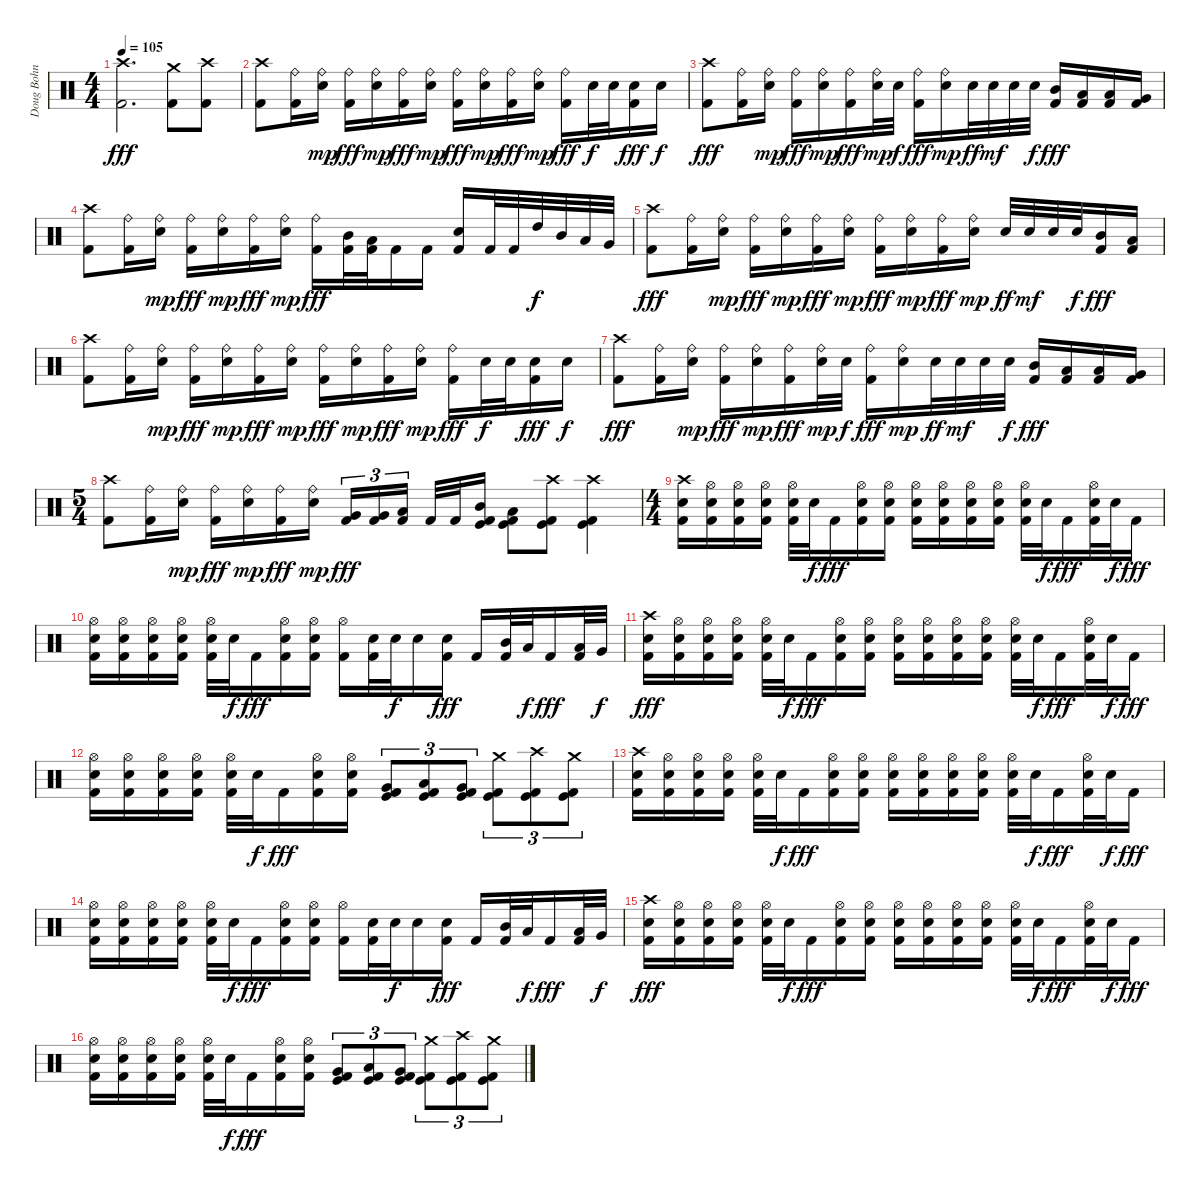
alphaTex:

\track ("Doug Bohn" "Doug Bohn") {instrument percussion}
\staff {score}
\articulation defaults
\ts (4 4)
\tempo 105
\clef neutral
\ks c
("Crash high (hit)" "Kick (hit) 2").2{d dy fff} ("Crash medium (hit)" "Kick (hit) 2").8 ("Crash high (hit)" "Kick (hit) 2").8 |
("Crash high (hit)" "Kick (hit) 2").8 ("Ride (bell)" "Kick (hit) 2").16 ("Ride (bell)" "Snare (hit) 2").16{dy mp} ("Ride (bell)" "Kick (hit) 2").16{dy fff} ("Ride (bell)" "Snare (hit) 2").16{dy mp} ("Ride (bell)" "Kick (hit) 2").16{dy fff} ("Ride (bell)" "Snare (hit) 2").16{dy mp} ("Ride (bell)" "Kick (hit) 2").16{dy fff} ("Ride (bell)" "Snare (hit) 2").16{dy mp} ("Ride (bell)" "Kick (hit) 2").16{dy fff} ("Ride (bell)" "Snare (hit) 2").16{dy mp} ("Ride (bell)" "Kick (hit) 2").16{dy fff} "Snare (hit) 2".32{dy f} "Snare (hit) 2".32 ("Snare (hit) 2" "Kick (hit) 2").16{dy fff} "Snare (hit) 2".16{dy f} |
("Crash high (hit)" "Kick (hit) 2").8{dy fff} ("Ride (bell)" "Kick (hit) 2").16 ("Ride (bell)" "Snare (hit) 2").16{dy mp} ("Ride (bell)" "Kick (hit) 2").16{dy fff} ("Ride (bell)" "Snare (hit) 2").16{dy mp} ("Ride (bell)" "Kick (hit) 2").16{dy fff} ("Ride (bell)" "Snare (hit) 2").32{dy mp} "Snare (hit) 2".32{dy f} ("Ride (bell)" "Kick (hit) 2").16{dy fff} ("Ride (bell)" "Snare (hit) 2").16{dy mp} "Snare (hit) 2".32{dy ff} "Snare (hit) 2".32{dy mf} "Snare (hit) 2".32 "Snare (hit) 2".32{dy f} ("Mid Tom (hit)" "Kick (hit) 2").16{dy fff} ("Low Tom (hit)" "Kick (hit) 2").16 ("Low Tom (hit)" "Kick (hit) 2").16 ("Very Low Tom (hit)" "Kick (hit) 2").16 |
("Crash high (hit)" "Kick (hit) 2").8 ("Ride (bell)" "Kick (hit) 2").16 ("Ride (bell)" "Snare (hit) 2").16{dy mp} ("Ride (bell)" "Kick (hit) 2").16{dy fff} ("Ride (bell)" "Snare (hit) 2").16{dy mp} ("Ride (bell)" "Kick (hit) 2").16{dy fff} ("Ride (bell)" "Snare (hit) 2").16{dy mp} ("Ride (bell)" "Kick (hit) 2").16{dy fff} ("Mid Tom (hit)" "Kick (hit) 2").32 ("Low Tom (hit)" "Kick (hit) 2").32 "Kick (hit) 2".16 "Kick (hit) 2".16 ("Snare (hit) 2" "Kick (hit) 2").16 "Kick (hit) 2".32 "Kick (hit) 2".32 "High Tom (hit)".32{dy f} "Mid Tom (hit)".32 "Low Tom (hit)".32 "Very Low Tom (hit)".32 |
("Crash high (hit)" "Kick (hit) 2").8{dy fff} ("Ride (bell)" "Kick (hit) 2").16 ("Ride (bell)" "Snare (hit) 2").16{dy mp} ("Ride (bell)" "Kick (hit) 2").16{dy fff} ("Ride (bell)" "Snare (hit) 2").16{dy mp} ("Ride (bell)" "Kick (hit) 2").16{dy fff} ("Ride (bell)" "Snare (hit) 2").16{dy mp} ("Ride (bell)" "Kick (hit) 2").16{dy fff} ("Ride (bell)" "Snare (hit) 2").16{dy mp} ("Ride (bell)" "Kick (hit) 2").16{dy fff} ("Ride (bell)" "Snare (hit) 2").16{dy mp} "Snare (hit) 2".32{dy ff} "Snare (hit) 2".32{dy mf} "Snare (hit) 2".32 "Snare (hit) 2".32{dy f} ("Mid Tom (hit)" "Kick (hit) 2").16{dy fff} ("Low Tom (hit)" "Kick (hit) 2").16 |
("Crash high (hit)" "Kick (hit) 2").8 ("Ride (bell)" "Kick (hit) 2").16 ("Ride (bell)" "Snare (hit) 2").16{dy mp} ("Ride (bell)" "Kick (hit) 2").16{dy fff} ("Ride (bell)" "Snare (hit) 2").16{dy mp} ("Ride (bell)" "Kick (hit) 2").16{dy fff} ("Ride (bell)" "Snare (hit) 2").16{dy mp} ("Ride (bell)" "Kick (hit) 2").16{dy fff} ("Ride (bell)" "Snare (hit) 2").16{dy mp} ("Ride (bell)" "Kick (hit) 2").16{dy fff} ("Ride (bell)" "Snare (hit) 2").16{dy mp} ("Ride (bell)" "Kick (hit) 2").16{dy fff} "Snare (hit) 2".32{dy f} "Snare (hit) 2".32 ("Snare (hit) 2" "Kick (hit) 2").16{dy fff} "Snare (hit) 2".16{dy f} |
("Crash high (hit)" "Kick (hit) 2").8{dy fff} ("Ride (bell)" "Kick (hit) 2").16 ("Ride (bell)" "Snare (hit) 2").16{dy mp} ("Ride (bell)" "Kick (hit) 2").16{dy fff} ("Ride (bell)" "Snare (hit) 2").16{dy mp} ("Ride (bell)" "Kick (hit) 2").16{dy fff} ("Ride (bell)" "Snare (hit) 2").32{dy mp} "Snare (hit) 2".32{dy f} ("Ride (bell)" "Kick (hit) 2").16{dy fff} ("Ride (bell)" "Snare (hit) 2").16{dy mp} "Snare (hit) 2".32{dy ff} "Snare (hit) 2".32{dy mf} "Snare (hit) 2".32 "Snare (hit) 2".32{dy f} ("Mid Tom (hit)" "Kick (hit) 2").16{dy fff} ("Low Tom (hit)" "Kick (hit) 2").16 ("Low Tom (hit)" "Kick (hit) 2").16 ("Very Low Tom (hit)" "Kick (hit) 2").16 |
\ts (5 4)
("Crash high (hit)" "Kick (hit) 2").8 ("Ride (bell)" "Kick (hit) 2").16 ("Ride (bell)" "Snare (hit) 2").16{dy mp} ("Ride (bell)" "Kick (hit) 2").16{dy fff} ("Ride (bell)" "Snare (hit) 2").16{dy mp} ("Ride (bell)" "Kick (hit) 2").16{dy fff} ("Ride (bell)" "Snare (hit) 2").16{dy mp} ("Very Low Tom (hit)" "Kick (hit) 2").16{tu (3 2) dy fff} ("Very Low Tom (hit)" "Kick (hit) 2").16{tu (3 2)} ("Low Floor Tom (hit)" "Kick (hit) 2").16{tu (3 2)} "Kick (hit) 2".32 "Kick (hit) 2".32 ("Mid Tom (hit)" "Kick (hit)" "Kick (hit) 2").16 ("Low Tom (hit)" "Kick (hit)" "Kick (hit) 2").8 ("Crash high (hit)" "Kick (hit)" "Kick (hit) 2").8 ("Crash high (hit)" "Kick (hit)" "Kick (hit) 2").4 |
\ts (4 4)
("Crash high (hit)" "Snare (hit) 2" "Kick (hit) 2").16 ("Hi-Hat (open)" "Snare (hit) 2" "Kick (hit) 2").16 ("Hi-Hat (open)" "Snare (hit) 2" "Kick (hit) 2").16 ("Hi-Hat (open)" "Snare (hit) 2" "Kick (hit) 2").16 ("Hi-Hat (open)" "Snare (hit) 2" "Kick (hit) 2").32 "Snare (hit) 2".32{dy f} "Kick (hit) 2".16{dy fff} ("Hi-Hat (open)" "Snare (hit) 2" "Kick (hit) 2").16 ("Hi-Hat (open)" "Snare (hit) 2" "Kick (hit) 2").16 ("Hi-Hat (open)" "Snare (hit) 2" "Kick (hit) 2").16 ("Hi-Hat (open)" "Snare (hit) 2" "Kick (hit) 2").16 ("Hi-Hat (open)" "Snare (hit) 2" "Kick (hit) 2").16 ("Hi-Hat (open)" "Snare (hit) 2" "Kick (hit) 2").16 ("Hi-Hat (open)" "Snare (hit) 2" "Kick (hit) 2").32 "Snare (hit) 2".32{dy f} "Kick (hit) 2".16{dy fff} ("Hi-Hat (open)" "Snare (hit) 2" "Kick (hit) 2").32 "Snare (hit) 2".32{dy f} "Kick (hit) 2".16{dy fff} |
("Hi-Hat (open)" "Snare (hit) 2" "Kick (hit) 2").16 ("Hi-Hat (open)" "Snare (hit) 2" "Kick (hit) 2").16 ("Hi-Hat (open)" "Snare (hit) 2" "Kick (hit) 2").16 ("Hi-Hat (open)" "Snare (hit) 2" "Kick (hit) 2").16 ("Hi-Hat (open)" "Snare (hit) 2" "Kick (hit) 2").32 "Snare (hit) 2".32{dy f} "Kick (hit) 2".16{dy fff} ("Hi-Hat (open)" "Snare (hit) 2" "Kick (hit) 2").16 ("Hi-Hat (open)" "Snare (hit) 2" "Kick (hit) 2").16 ("Hi-Hat (open)" "Kick (hit) 2").16 ("Snare (hit) 2" "Kick (hit) 2").32 "Snare (hit) 2".32{dy f} "Snare (hit) 2".16 ("Snare (hit) 2" "Kick (hit) 2").16{dy fff} "Kick (hit) 2".16 ("Mid Tom (hit)" "Kick (hit) 2").32 "Low Tom (hit)".32{dy f} "Kick (hit) 2".16{dy fff} ("Low Tom (hit)" "Kick (hit) 2").32 "Very Low Tom (hit)".32{dy f} |
("Crash high (hit)" "Snare (hit) 2" "Kick (hit) 2").16{dy fff} ("Hi-Hat (open)" "Snare (hit) 2" "Kick (hit) 2").16 ("Hi-Hat (open)" "Snare (hit) 2" "Kick (hit) 2").16 ("Hi-Hat (open)" "Snare (hit) 2" "Kick (hit) 2").16 ("Hi-Hat (open)" "Snare (hit) 2" "Kick (hit) 2").32 "Snare (hit) 2".32{dy f} "Kick (hit) 2".16{dy fff} ("Hi-Hat (open)" "Snare (hit) 2" "Kick (hit) 2").16 ("Hi-Hat (open)" "Snare (hit) 2" "Kick (hit) 2").16 ("Hi-Hat (open)" "Snare (hit) 2" "Kick (hit) 2").16 ("Hi-Hat (open)" "Snare (hit) 2" "Kick (hit) 2").16 ("Hi-Hat (open)" "Snare (hit) 2" "Kick (hit) 2").16 ("Hi-Hat (open)" "Snare (hit) 2" "Kick (hit) 2").16 ("Hi-Hat (open)" "Snare (hit) 2" "Kick (hit) 2").32 "Snare (hit) 2".32{dy f} "Kick (hit) 2".16{dy fff} ("Hi-Hat (open)" "Snare (hit) 2" "Kick (hit) 2").32 "Snare (hit) 2".32{dy f} "Kick (hit) 2".16{dy fff} |
("Hi-Hat (open)" "Snare (hit) 2" "Kick (hit) 2").16 ("Hi-Hat (open)" "Snare (hit) 2" "Kick (hit) 2").16 ("Hi-Hat (open)" "Snare (hit) 2" "Kick (hit) 2").16 ("Hi-Hat (open)" "Snare (hit) 2" "Kick (hit) 2").16 ("Hi-Hat (open)" "Snare (hit) 2" "Kick (hit) 2").32 "Snare (hit) 2".32{dy f} "Kick (hit) 2".16{dy fff} ("Hi-Hat (open)" "Snare (hit) 2" "Kick (hit) 2").16 ("Hi-Hat (open)" "Snare (hit) 2" "Kick (hit) 2").16 ("Very Low Tom (hit)" "Kick (hit)" "Kick (hit) 2").8{tu (3 2)} ("Low Floor Tom (hit)" "Kick (hit)" "Kick (hit) 2").8{tu (3 2)} ("Very Low Tom (hit)" "Kick (hit)" "Kick (hit) 2").8{tu (3 2)} ("Crash medium (hit)" "Kick (hit)" "Kick (hit) 2").8{tu (3 2)} ("Crash high (hit)" "Kick (hit)" "Kick (hit) 2").8{tu (3 2)} ("Crash medium (hit)" "Kick (hit)" "Kick (hit) 2").8{tu (3 2)} |
("Crash high (hit)" "Snare (hit) 2" "Kick (hit) 2").16 ("Hi-Hat (open)" "Snare (hit) 2" "Kick (hit) 2").16 ("Hi-Hat (open)" "Snare (hit) 2" "Kick (hit) 2").16 ("Hi-Hat (open)" "Snare (hit) 2" "Kick (hit) 2").16 ("Hi-Hat (open)" "Snare (hit) 2" "Kick (hit) 2").32 "Snare (hit) 2".32{dy f} "Kick (hit) 2".16{dy fff} ("Hi-Hat (open)" "Snare (hit) 2" "Kick (hit) 2").16 ("Hi-Hat (open)" "Snare (hit) 2" "Kick (hit) 2").16 ("Hi-Hat (open)" "Snare (hit) 2" "Kick (hit) 2").16 ("Hi-Hat (open)" "Snare (hit) 2" "Kick (hit) 2").16 ("Hi-Hat (open)" "Snare (hit) 2" "Kick (hit) 2").16 ("Hi-Hat (open)" "Snare (hit) 2" "Kick (hit) 2").16 ("Hi-Hat (open)" "Snare (hit) 2" "Kick (hit) 2").32 "Snare (hit) 2".32{dy f} "Kick (hit) 2".16{dy fff} ("Hi-Hat (open)" "Snare (hit) 2" "Kick (hit) 2").32 "Snare (hit) 2".32{dy f} "Kick (hit) 2".16{dy fff} |
("Hi-Hat (open)" "Snare (hit) 2" "Kick (hit) 2").16 ("Hi-Hat (open)" "Snare (hit) 2" "Kick (hit) 2").16 ("Hi-Hat (open)" "Snare (hit) 2" "Kick (hit) 2").16 ("Hi-Hat (open)" "Snare (hit) 2" "Kick (hit) 2").16 ("Hi-Hat (open)" "Snare (hit) 2" "Kick (hit) 2").32 "Snare (hit) 2".32{dy f} "Kick (hit) 2".16{dy fff} ("Hi-Hat (open)" "Snare (hit) 2" "Kick (hit) 2").16 ("Hi-Hat (open)" "Snare (hit) 2" "Kick (hit) 2").16 ("Hi-Hat (open)" "Kick (hit) 2").16 ("Snare (hit) 2" "Kick (hit) 2").32 "Snare (hit) 2".32{dy f} "Snare (hit) 2".16 ("Snare (hit) 2" "Kick (hit) 2").16{dy fff} "Kick (hit) 2".16 ("Mid Tom (hit)" "Kick (hit) 2").32 "Low Tom (hit)".32{dy f} "Kick (hit) 2".16{dy fff} ("Low Tom (hit)" "Kick (hit) 2").32 "Very Low Tom (hit)".32{dy f} |
("Crash high (hit)" "Snare (hit) 2" "Kick (hit) 2").16{dy fff} ("Hi-Hat (open)" "Snare (hit) 2" "Kick (hit) 2").16 ("Hi-Hat (open)" "Snare (hit) 2" "Kick (hit) 2").16 ("Hi-Hat (open)" "Snare (hit) 2" "Kick (hit) 2").16 ("Hi-Hat (open)" "Snare (hit) 2" "Kick (hit) 2").32 "Snare (hit) 2".32{dy f} "Kick (hit) 2".16{dy fff} ("Hi-Hat (open)" "Snare (hit) 2" "Kick (hit) 2").16 ("Hi-Hat (open)" "Snare (hit) 2" "Kick (hit) 2").16 ("Hi-Hat (open)" "Snare (hit) 2" "Kick (hit) 2").16 ("Hi-Hat (open)" "Snare (hit) 2" "Kick (hit) 2").16 ("Hi-Hat (open)" "Snare (hit) 2" "Kick (hit) 2").16 ("Hi-Hat (open)" "Snare (hit) 2" "Kick (hit) 2").16 ("Hi-Hat (open)" "Snare (hit) 2" "Kick (hit) 2").32 "Snare (hit) 2".32{dy f} "Kick (hit) 2".16{dy fff} ("Hi-Hat (open)" "Snare (hit) 2" "Kick (hit) 2").32 "Snare (hit) 2".32{dy f} "Kick (hit) 2".16{dy fff} |
("Hi-Hat (open)" "Snare (hit) 2" "Kick (hit) 2").16 ("Hi-Hat (open)" "Snare (hit) 2" "Kick (hit) 2").16 ("Hi-Hat (open)" "Snare (hit) 2" "Kick (hit) 2").16 ("Hi-Hat (open)" "Snare (hit) 2" "Kick (hit) 2").16 ("Hi-Hat (open)" "Snare (hit) 2" "Kick (hit) 2").32 "Snare (hit) 2".32{dy f} "Kick (hit) 2".16{dy fff} ("Hi-Hat (open)" "Snare (hit) 2" "Kick (hit) 2").16 ("Hi-Hat (open)" "Snare (hit) 2" "Kick (hit) 2").16 ("Very Low Tom (hit)" "Kick (hit)" "Kick (hit) 2").8{tu (3 2)} ("Low Floor Tom (hit)" "Kick (hit)" "Kick (hit) 2").8{tu (3 2)} ("Very Low Tom (hit)" "Kick (hit)" "Kick (hit) 2").8{tu (3 2)} ("Crash medium (hit)" "Kick (hit)" "Kick (hit) 2").8{tu (3 2)} ("Crash high (hit)" "Kick (hit)" "Kick (hit) 2").8{tu (3 2)} ("Crash medium (hit)" "Kick (hit)" "Kick (hit) 2").8{tu (3 2)}
